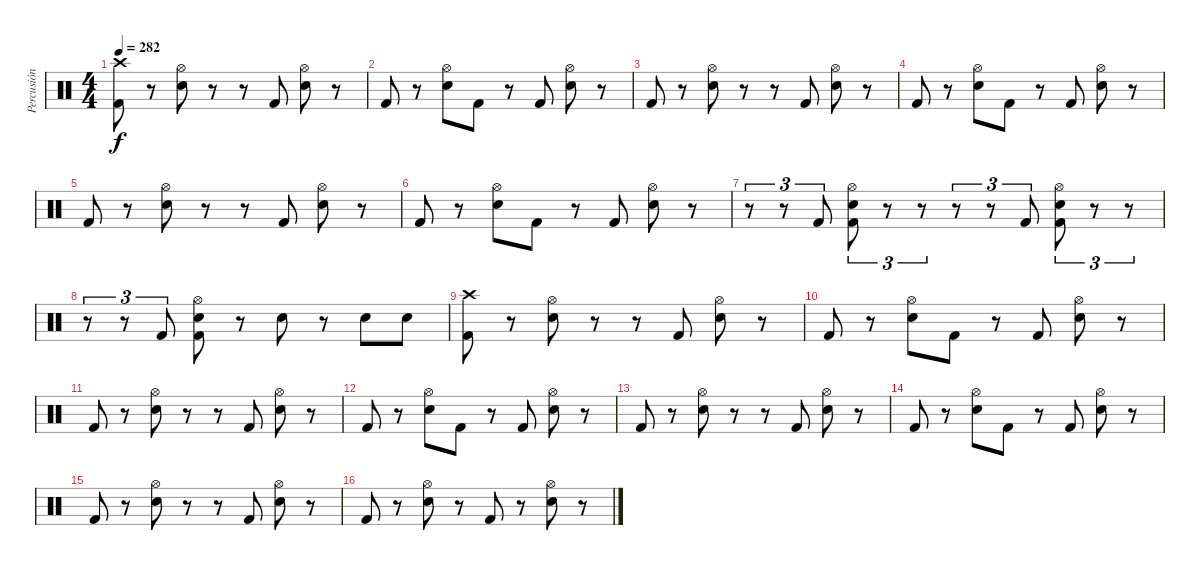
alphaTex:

\track ("Percusión" "Percusión") {instrument percussion}
\staff {score}
\articulation defaults
\ts (4 4)
\tempo 282
\clef neutral
\ks c
("Kick (hit) 2" "Crash high (hit)").8{dy f} r.8 ("Snare (hit) 2" "Hi-Hat (open)").8 r.8 r.8 "Kick (hit) 2".8 ("Snare (hit) 2" "Hi-Hat (open)").8 r.8 |
"Kick (hit) 2".8 r.8 ("Snare (hit) 2" "Hi-Hat (open)").8 "Kick (hit) 2".8 r.8 "Kick (hit) 2".8 ("Snare (hit) 2" "Hi-Hat (open)").8 r.8 |
"Kick (hit) 2".8 r.8 ("Snare (hit) 2" "Hi-Hat (open)").8 r.8 r.8 "Kick (hit) 2".8 ("Snare (hit) 2" "Hi-Hat (open)").8 r.8 |
"Kick (hit) 2".8 r.8 ("Snare (hit) 2" "Hi-Hat (open)").8 "Kick (hit) 2".8 r.8 "Kick (hit) 2".8 ("Snare (hit) 2" "Hi-Hat (open)").8 r.8 |
"Kick (hit) 2".8 r.8 ("Snare (hit) 2" "Hi-Hat (open)").8 r.8 r.8 "Kick (hit) 2".8 ("Snare (hit) 2" "Hi-Hat (open)").8 r.8 |
"Kick (hit) 2".8 r.8 ("Snare (hit) 2" "Hi-Hat (open)").8 "Kick (hit) 2".8 r.8 "Kick (hit) 2".8 ("Snare (hit) 2" "Hi-Hat (open)").8 r.8 |
r.8{tu (3 2)} r.8{tu (3 2)} "Kick (hit) 2".8{tu (3 2)} ("Kick (hit) 2" "Snare (hit) 2" "Hi-Hat (open)").8{tu (3 2)} r.8{tu (3 2)} r.8{tu (3 2)} r.8{tu (3 2)} r.8{tu (3 2)} "Kick (hit) 2".8{tu (3 2)} ("Kick (hit) 2" "Snare (hit) 2" "Hi-Hat (open)").8{tu (3 2)} r.8{tu (3 2)} r.8{tu (3 2)} |
r.8{tu (3 2)} r.8{tu (3 2)} "Kick (hit) 2".8{tu (3 2)} ("Kick (hit) 2" "Snare (hit) 2" "Hi-Hat (open)").8 r.8 "Snare (hit) 2".8 r.8 "Snare (hit) 2".8 "Snare (hit) 2".8 |
("Kick (hit) 2" "Crash high (hit)").8 r.8 ("Snare (hit) 2" "Hi-Hat (open)").8 r.8 r.8 "Kick (hit) 2".8 ("Snare (hit) 2" "Hi-Hat (open)").8 r.8 |
"Kick (hit) 2".8 r.8 ("Snare (hit) 2" "Hi-Hat (open)").8 "Kick (hit) 2".8 r.8 "Kick (hit) 2".8 ("Snare (hit) 2" "Hi-Hat (open)").8 r.8 |
"Kick (hit) 2".8 r.8 ("Snare (hit) 2" "Hi-Hat (open)").8 r.8 r.8 "Kick (hit) 2".8 ("Snare (hit) 2" "Hi-Hat (open)").8 r.8 |
"Kick (hit) 2".8 r.8 ("Snare (hit) 2" "Hi-Hat (open)").8 "Kick (hit) 2".8 r.8 "Kick (hit) 2".8 ("Snare (hit) 2" "Hi-Hat (open)").8 r.8 |
"Kick (hit) 2".8 r.8 ("Snare (hit) 2" "Hi-Hat (open)").8 r.8 r.8 "Kick (hit) 2".8 ("Snare (hit) 2" "Hi-Hat (open)").8 r.8 |
"Kick (hit) 2".8 r.8 ("Snare (hit) 2" "Hi-Hat (open)").8 "Kick (hit) 2".8 r.8 "Kick (hit) 2".8 ("Snare (hit) 2" "Hi-Hat (open)").8 r.8 |
"Kick (hit) 2".8 r.8 ("Snare (hit) 2" "Hi-Hat (open)").8 r.8 r.8 "Kick (hit) 2".8 ("Snare (hit) 2" "Hi-Hat (open)").8 r.8 |
"Kick (hit) 2".8 r.8 ("Snare (hit) 2" "Hi-Hat (open)").8 r.8 "Kick (hit) 2".8 r.8 ("Snare (hit) 2" "Hi-Hat (open)").8 r.8
